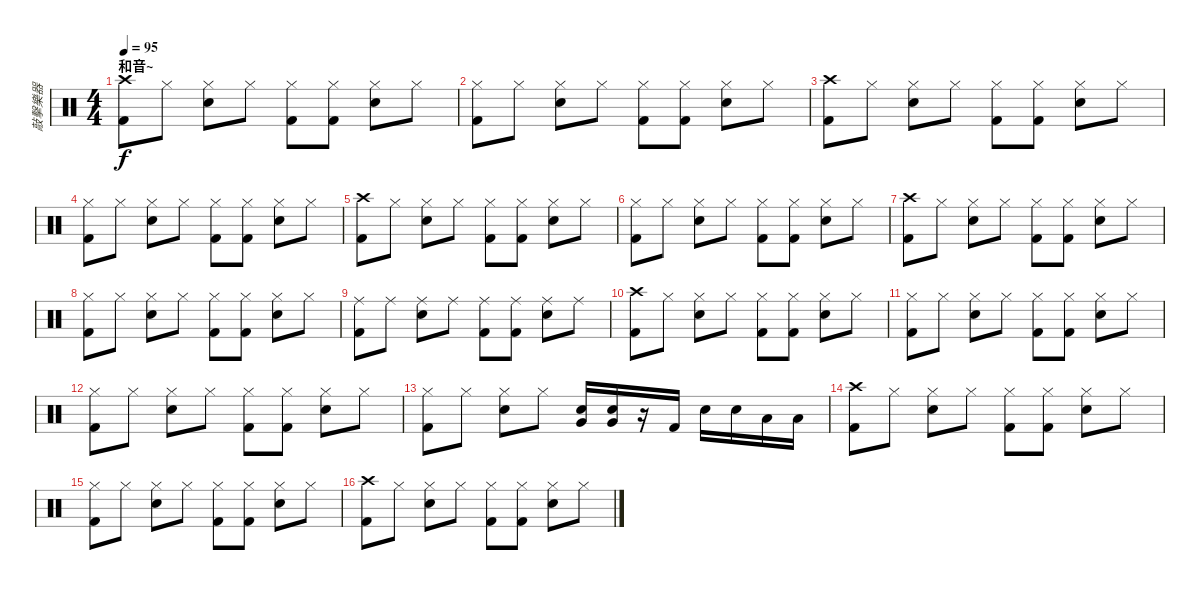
\track ("敲擊樂器" "敲擊樂器") {instrument percussion}
\staff {score}
\articulation defaults
\ts (4 4)
\section ("" "和音~")
\tempo 95
\clef neutral
\ks c
("Crash high (hit)" "Kick (hit) 2").8{dy f} "Hi-Hat (closed)".8 ("Hi-Hat (closed)" "Snare (hit) 2").8 "Hi-Hat (closed)".8 ("Hi-Hat (closed)" "Kick (hit) 2").8 ("Hi-Hat (closed)" "Kick (hit) 2").8 ("Hi-Hat (closed)" "Snare (hit) 2").8 "Hi-Hat (closed)".8 |
("Hi-Hat (closed)" "Kick (hit) 2").8 "Hi-Hat (closed)".8 ("Hi-Hat (closed)" "Snare (hit) 2").8 "Hi-Hat (closed)".8 ("Hi-Hat (closed)" "Kick (hit) 2").8 ("Hi-Hat (closed)" "Kick (hit) 2").8 ("Hi-Hat (closed)" "Snare (hit) 2").8 "Hi-Hat (closed)".8 |
("Crash high (hit)" "Kick (hit) 2").8 "Hi-Hat (closed)".8 ("Hi-Hat (closed)" "Snare (hit) 2").8 "Hi-Hat (closed)".8 ("Hi-Hat (closed)" "Kick (hit) 2").8 ("Hi-Hat (closed)" "Kick (hit) 2").8 ("Hi-Hat (closed)" "Snare (hit) 2").8 "Hi-Hat (closed)".8 |
("Hi-Hat (closed)" "Kick (hit) 2").8 "Hi-Hat (closed)".8 ("Hi-Hat (closed)" "Snare (hit) 2").8 "Hi-Hat (closed)".8 ("Hi-Hat (closed)" "Kick (hit) 2").8 ("Hi-Hat (closed)" "Kick (hit) 2").8 ("Hi-Hat (closed)" "Snare (hit) 2").8 "Hi-Hat (closed)".8 |
("Crash high (hit)" "Kick (hit) 2").8 "Hi-Hat (closed)".8 ("Hi-Hat (closed)" "Snare (hit) 2").8 "Hi-Hat (closed)".8 ("Hi-Hat (closed)" "Kick (hit) 2").8 ("Hi-Hat (closed)" "Kick (hit) 2").8 ("Hi-Hat (closed)" "Snare (hit) 2").8 "Hi-Hat (closed)".8 |
("Hi-Hat (closed)" "Kick (hit) 2").8 "Hi-Hat (closed)".8 ("Hi-Hat (closed)" "Snare (hit) 2").8 "Hi-Hat (closed)".8 ("Hi-Hat (closed)" "Kick (hit) 2").8 ("Hi-Hat (closed)" "Kick (hit) 2").8 ("Hi-Hat (closed)" "Snare (hit) 2").8 "Hi-Hat (closed)".8 |
("Crash high (hit)" "Kick (hit) 2").8 "Hi-Hat (closed)".8 ("Hi-Hat (closed)" "Snare (hit) 2").8 "Hi-Hat (closed)".8 ("Hi-Hat (closed)" "Kick (hit) 2").8 ("Hi-Hat (closed)" "Kick (hit) 2").8 ("Hi-Hat (closed)" "Snare (hit) 2").8 "Hi-Hat (closed)".8 |
("Hi-Hat (closed)" "Kick (hit) 2").8 "Hi-Hat (closed)".8 ("Hi-Hat (closed)" "Snare (hit) 2").8 "Hi-Hat (closed)".8 ("Hi-Hat (closed)" "Kick (hit) 2").8 ("Hi-Hat (closed)" "Kick (hit) 2").8 ("Hi-Hat (closed)" "Snare (hit) 2").8 "Hi-Hat (closed)".8 |
("Ride (middle)" "Kick (hit) 2").8 "Ride (middle)".8 ("Ride (middle)" "Snare (hit) 2").8 "Ride (middle)".8 ("Ride (middle)" "Kick (hit) 2").8 ("Ride (middle)" "Kick (hit) 2").8 ("Ride (middle)" "Snare (hit) 2").8 "Ride (middle)".8 |
("Crash high (hit)" "Kick (hit) 2").8 "Hi-Hat (closed)".8 ("Hi-Hat (closed)" "Snare (hit) 2").8 "Hi-Hat (closed)".8 ("Hi-Hat (closed)" "Kick (hit) 2").8 ("Hi-Hat (closed)" "Kick (hit) 2").8 ("Hi-Hat (closed)" "Snare (hit) 2").8 "Hi-Hat (closed)".8 |
("Hi-Hat (closed)" "Kick (hit) 2").8 "Hi-Hat (closed)".8 ("Hi-Hat (closed)" "Snare (hit) 2").8 "Hi-Hat (closed)".8 ("Hi-Hat (closed)" "Kick (hit) 2").8 ("Hi-Hat (closed)" "Kick (hit) 2").8 ("Hi-Hat (closed)" "Snare (hit) 2").8 "Hi-Hat (closed)".8 |
("Hi-Hat (closed)" "Kick (hit) 2").8 "Hi-Hat (closed)".8 ("Hi-Hat (closed)" "Snare (hit) 2").8 "Hi-Hat (closed)".8 ("Hi-Hat (closed)" "Kick (hit) 2").8 ("Hi-Hat (closed)" "Kick (hit) 2").8 ("Hi-Hat (closed)" "Snare (hit) 2").8 "Hi-Hat (closed)".8 |
("Hi-Hat (closed)" "Kick (hit) 2").8 "Hi-Hat (closed)".8 ("Hi-Hat (closed)" "Snare (hit) 2").8 "Hi-Hat (closed)".8 ("Snare (hit) 2" "Very Low Tom (hit)").16 ("Snare (hit) 2" "Very Low Tom (hit)").16 r.16 "Kick (hit) 2".16 "Snare (hit) 2".16 "Snare (hit) 2".16 "Low Tom (hit)".16 "Low Tom (hit)".16 |
("Crash high (hit)" "Kick (hit) 2").8 "Hi-Hat (closed)".8 ("Hi-Hat (closed)" "Snare (hit) 2").8 "Hi-Hat (closed)".8 ("Hi-Hat (closed)" "Kick (hit) 2").8 ("Hi-Hat (closed)" "Kick (hit) 2").8 ("Hi-Hat (closed)" "Snare (hit) 2").8 "Hi-Hat (closed)".8 |
("Hi-Hat (closed)" "Kick (hit) 2").8 "Hi-Hat (closed)".8 ("Hi-Hat (closed)" "Snare (hit) 2").8 "Hi-Hat (closed)".8 ("Hi-Hat (closed)" "Kick (hit) 2").8 ("Hi-Hat (closed)" "Kick (hit) 2").8 ("Hi-Hat (closed)" "Snare (hit) 2").8 "Hi-Hat (closed)".8 |
("Crash high (hit)" "Kick (hit) 2").8 "Hi-Hat (closed)".8 ("Hi-Hat (closed)" "Snare (hit) 2").8 "Hi-Hat (closed)".8 ("Hi-Hat (closed)" "Kick (hit) 2").8 ("Hi-Hat (closed)" "Kick (hit) 2").8 ("Hi-Hat (closed)" "Snare (hit) 2").8 "Hi-Hat (closed)".8
